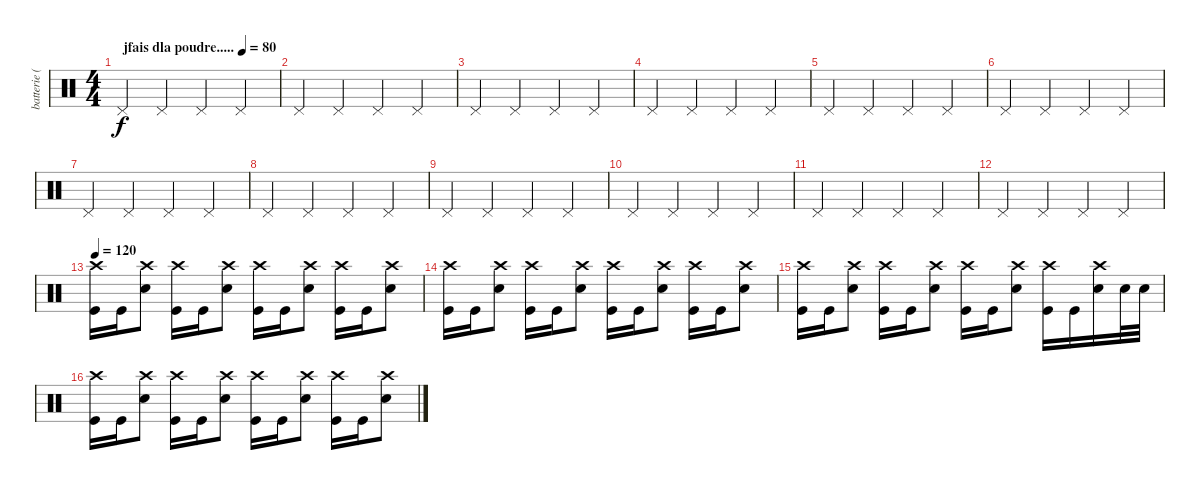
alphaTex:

\track ("batterie ( Yan ) " "batterie (") {instrument percussion}
\staff {score}
\articulation defaults
\ts (4 4)
\tempo (80 "jfais dla poudre.....")
\clef neutral
\ks c "Pedal Hi-Hat (hit)".4{dy f} "Pedal Hi-Hat (hit)".4 "Pedal Hi-Hat (hit)".4 "Pedal Hi-Hat (hit)".4
|
"Pedal Hi-Hat (hit)".4 "Pedal Hi-Hat (hit)".4 "Pedal Hi-Hat (hit)".4 "Pedal Hi-Hat (hit)".4 |
"Pedal Hi-Hat (hit)".4 "Pedal Hi-Hat (hit)".4 "Pedal Hi-Hat (hit)".4 "Pedal Hi-Hat (hit)".4 |
"Pedal Hi-Hat (hit)".4 "Pedal Hi-Hat (hit)".4 "Pedal Hi-Hat (hit)".4 "Pedal Hi-Hat (hit)".4 |
"Pedal Hi-Hat (hit)".4 "Pedal Hi-Hat (hit)".4 "Pedal Hi-Hat (hit)".4 "Pedal Hi-Hat (hit)".4 |
"Pedal Hi-Hat (hit)".4 "Pedal Hi-Hat (hit)".4 "Pedal Hi-Hat (hit)".4 "Pedal Hi-Hat (hit)".4 |
"Pedal Hi-Hat (hit)".4 "Pedal Hi-Hat (hit)".4 "Pedal Hi-Hat (hit)".4 "Pedal Hi-Hat (hit)".4 |
"Pedal Hi-Hat (hit)".4 "Pedal Hi-Hat (hit)".4 "Pedal Hi-Hat (hit)".4 "Pedal Hi-Hat (hit)".4 |
"Pedal Hi-Hat (hit)".4 "Pedal Hi-Hat (hit)".4 "Pedal Hi-Hat (hit)".4 "Pedal Hi-Hat (hit)".4 |
"Pedal Hi-Hat (hit)".4 "Pedal Hi-Hat (hit)".4 "Pedal Hi-Hat (hit)".4 "Pedal Hi-Hat (hit)".4 |
"Pedal Hi-Hat (hit)".4 "Pedal Hi-Hat (hit)".4 "Pedal Hi-Hat (hit)".4 "Pedal Hi-Hat (hit)".4 |
"Pedal Hi-Hat (hit)".4 "Pedal Hi-Hat (hit)".4 "Pedal Hi-Hat (hit)".4 "Pedal Hi-Hat (hit)".4 |
\tempo 120
("Crash high (hit)" "Kick (hit)").16 "Kick (hit)".16 ("Crash high (hit)" "Snare (hit) 2").8 ("Crash high (hit)" "Kick (hit)").16 "Kick (hit)".16 ("Crash high (hit)" "Snare (hit) 2").8 ("Crash high (hit)" "Kick (hit)").16 "Kick (hit)".16 ("Crash high (hit)" "Snare (hit) 2").8 ("Crash high (hit)" "Kick (hit)").16 "Kick (hit)".16 ("Crash high (hit)" "Snare (hit) 2").8 |
("Crash high (hit)" "Kick (hit)").16 "Kick (hit)".16 ("Crash high (hit)" "Snare (hit) 2").8 ("Crash high (hit)" "Kick (hit)").16 "Kick (hit)".16 ("Crash high (hit)" "Snare (hit) 2").8 ("Crash high (hit)" "Kick (hit)").16 "Kick (hit)".16 ("Crash high (hit)" "Snare (hit) 2").8 ("Crash high (hit)" "Kick (hit)").16 "Kick (hit)".16 ("Crash high (hit)" "Snare (hit) 2").8 |
("Crash high (hit)" "Kick (hit)").16 "Kick (hit)".16 ("Crash high (hit)" "Snare (hit) 2").8 ("Crash high (hit)" "Kick (hit)").16 "Kick (hit)".16 ("Crash high (hit)" "Snare (hit) 2").8 ("Crash high (hit)" "Kick (hit)").16 "Kick (hit)".16 ("Crash high (hit)" "Snare (hit) 2").8 ("Crash high (hit)" "Kick (hit)").16 "Kick (hit)".16 ("Crash high (hit)" "Snare (hit) 2").16 "Snare (hit) 2".32 "Snare (hit) 2".32 |
("Crash high (hit)" "Kick (hit)").16 "Kick (hit)".16 ("Crash high (hit)" "Snare (hit) 2").8 ("Crash high (hit)" "Kick (hit)").16 "Kick (hit)".16 ("Crash high (hit)" "Snare (hit) 2").8 ("Crash high (hit)" "Kick (hit)").16 "Kick (hit)".16 ("Crash high (hit)" "Snare (hit) 2").8 ("Crash high (hit)" "Kick (hit)").16 "Kick (hit)".16 ("Crash high (hit)" "Snare (hit) 2").8
